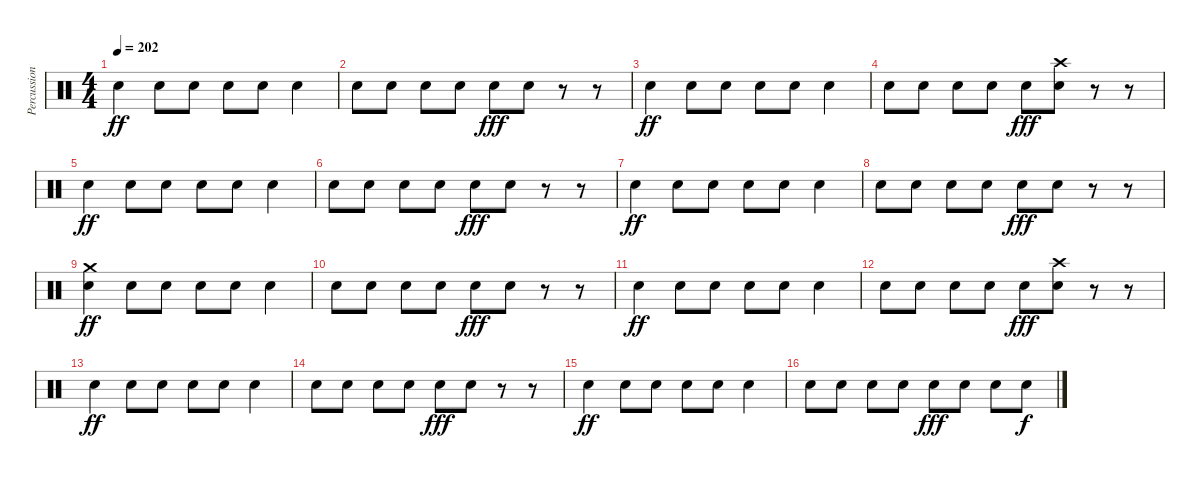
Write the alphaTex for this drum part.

\track ("Percussion" "Percussion") {instrument percussion}
\staff {score}
\articulation defaults
\ts (4 4)
\tempo 202
\clef neutral
\ks c "Electric Snare (hit)".4{dy ff} "Electric Snare (hit)".8 "Electric Snare (hit)".8 "Electric Snare (hit)".8 "Electric Snare (hit)".8 "Electric Snare (hit)".4
|
"Electric Snare (hit)".8 "Electric Snare (hit)".8 "Electric Snare (hit)".8 "Electric Snare (hit)".8 "Electric Snare (hit)".8{dy fff} "Electric Snare (hit)".8 r.8 r.8 |
"Electric Snare (hit)".4{dy ff} "Electric Snare (hit)".8 "Electric Snare (hit)".8 "Electric Snare (hit)".8 "Electric Snare (hit)".8 "Electric Snare (hit)".4 |
"Electric Snare (hit)".8 "Electric Snare (hit)".8 "Electric Snare (hit)".8 "Electric Snare (hit)".8 "Electric Snare (hit)".8{dy fff} ("Crash high (hit)" "Electric Snare (hit)").8 r.8 r.8 |
"Electric Snare (hit)".4{dy ff} "Electric Snare (hit)".8 "Electric Snare (hit)".8 "Electric Snare (hit)".8 "Electric Snare (hit)".8 "Electric Snare (hit)".4 |
"Electric Snare (hit)".8 "Electric Snare (hit)".8 "Electric Snare (hit)".8 "Electric Snare (hit)".8 "Electric Snare (hit)".8{dy fff} "Electric Snare (hit)".8 r.8 r.8 |
"Electric Snare (hit)".4{dy ff} "Electric Snare (hit)".8 "Electric Snare (hit)".8 "Electric Snare (hit)".8 "Electric Snare (hit)".8 "Electric Snare (hit)".4 |
"Electric Snare (hit)".8 "Electric Snare (hit)".8 "Electric Snare (hit)".8 "Electric Snare (hit)".8 "Electric Snare (hit)".8{dy fff} "Electric Snare (hit)".8 r.8 r.8 |
("Crash medium (hit)" "Electric Snare (hit)").4{dy ff} "Electric Snare (hit)".8 "Electric Snare (hit)".8 "Electric Snare (hit)".8 "Electric Snare (hit)".8 "Electric Snare (hit)".4 |
"Electric Snare (hit)".8 "Electric Snare (hit)".8 "Electric Snare (hit)".8 "Electric Snare (hit)".8 "Electric Snare (hit)".8{dy fff} "Electric Snare (hit)".8 r.8 r.8 |
"Electric Snare (hit)".4{dy ff} "Electric Snare (hit)".8 "Electric Snare (hit)".8 "Electric Snare (hit)".8 "Electric Snare (hit)".8 "Electric Snare (hit)".4 |
"Electric Snare (hit)".8 "Electric Snare (hit)".8 "Electric Snare (hit)".8 "Electric Snare (hit)".8 "Electric Snare (hit)".8{dy fff} ("Crash high (hit)" "Electric Snare (hit)").8 r.8 r.8 |
"Electric Snare (hit)".4{dy ff} "Electric Snare (hit)".8 "Electric Snare (hit)".8 "Electric Snare (hit)".8 "Electric Snare (hit)".8 "Electric Snare (hit)".4 |
"Electric Snare (hit)".8 "Electric Snare (hit)".8 "Electric Snare (hit)".8 "Electric Snare (hit)".8 "Electric Snare (hit)".8{dy fff} "Electric Snare (hit)".8 r.8 r.8 |
"Electric Snare (hit)".4{dy ff} "Electric Snare (hit)".8 "Electric Snare (hit)".8 "Electric Snare (hit)".8 "Electric Snare (hit)".8 "Electric Snare (hit)".4 |
"Electric Snare (hit)".8 "Electric Snare (hit)".8 "Electric Snare (hit)".8 "Electric Snare (hit)".8 "Electric Snare (hit)".8{dy fff} "Electric Snare (hit)".8 "Electric Snare (hit)".8 "Electric Snare (hit)".8{dy f}
